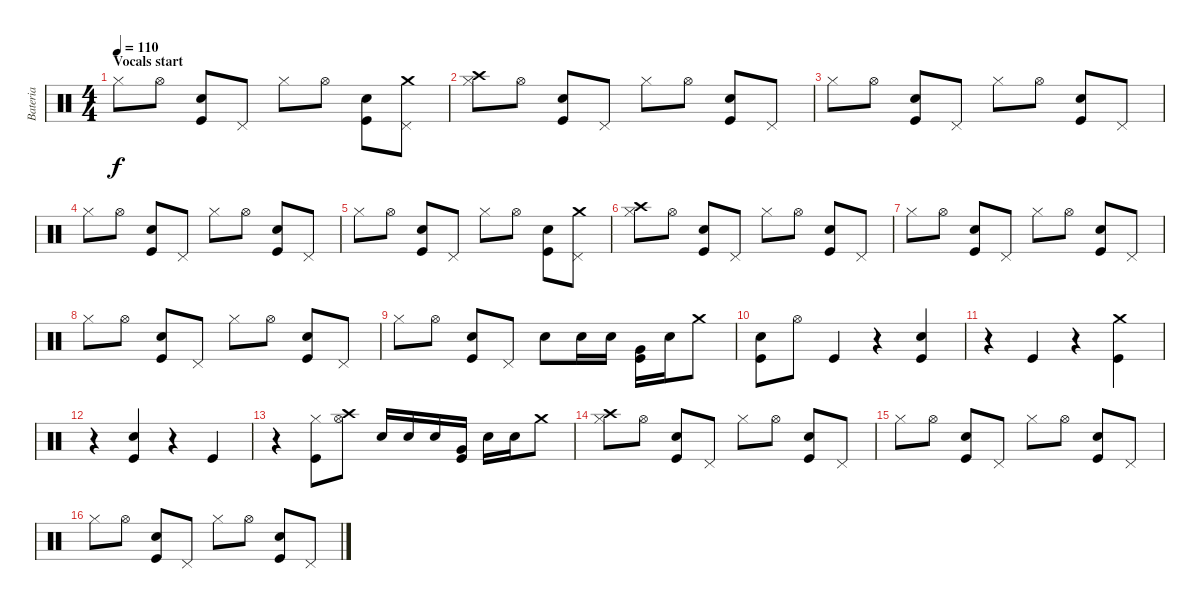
\track ("Bateria" "Bateria") {instrument percussion}
\staff {score}
\articulation defaults
\ts (4 4)
\section ("" "Vocals start")
\tempo 110
\clef neutral
\ks c "Hi-Hat (closed)".8{dy f} "Hi-Hat (open)".8
("Electric Snare (hit)" "Kick (hit)").8 "Pedal Hi-Hat (hit)".8 "Hi-Hat (closed)".8 "Hi-Hat (open)".8 ("Electric Snare (hit)" "Kick (hit)").8 ("Crash medium (hit)" "Pedal Hi-Hat (hit)").8 |
("Crash high (hit)" "Hi-Hat (closed)").8 "Hi-Hat (open)".8 ("Electric Snare (hit)" "Kick (hit)").8 "Pedal Hi-Hat (hit)".8 "Hi-Hat (closed)".8 "Hi-Hat (open)".8 ("Electric Snare (hit)" "Kick (hit)").8 "Pedal Hi-Hat (hit)".8 |
"Hi-Hat (closed)".8 "Hi-Hat (open)".8 ("Electric Snare (hit)" "Kick (hit)").8 "Pedal Hi-Hat (hit)".8 "Hi-Hat (closed)".8 "Hi-Hat (open)".8 ("Electric Snare (hit)" "Kick (hit)").8 "Pedal Hi-Hat (hit)".8 |
"Hi-Hat (closed)".8 "Hi-Hat (open)".8 ("Electric Snare (hit)" "Kick (hit)").8 "Pedal Hi-Hat (hit)".8 "Hi-Hat (closed)".8 "Hi-Hat (open)".8 ("Electric Snare (hit)" "Kick (hit)").8 "Pedal Hi-Hat (hit)".8 |
"Hi-Hat (closed)".8 "Hi-Hat (open)".8 ("Electric Snare (hit)" "Kick (hit)").8 "Pedal Hi-Hat (hit)".8 "Hi-Hat (closed)".8 "Hi-Hat (open)".8 ("Electric Snare (hit)" "Kick (hit)").8 ("Crash medium (hit)" "Pedal Hi-Hat (hit)").8 |
("Crash high (hit)" "Hi-Hat (closed)").8 "Hi-Hat (open)".8 ("Electric Snare (hit)" "Kick (hit)").8 "Pedal Hi-Hat (hit)".8 "Hi-Hat (closed)".8 "Hi-Hat (open)".8 ("Electric Snare (hit)" "Kick (hit)").8 "Pedal Hi-Hat (hit)".8 |
"Hi-Hat (closed)".8 "Hi-Hat (open)".8 ("Electric Snare (hit)" "Kick (hit)").8 "Pedal Hi-Hat (hit)".8 "Hi-Hat (closed)".8 "Hi-Hat (open)".8 ("Electric Snare (hit)" "Kick (hit)").8 "Pedal Hi-Hat (hit)".8 |
"Hi-Hat (closed)".8 "Hi-Hat (open)".8 ("Electric Snare (hit)" "Kick (hit)").8 "Pedal Hi-Hat (hit)".8 "Hi-Hat (closed)".8 "Hi-Hat (open)".8 ("Electric Snare (hit)" "Kick (hit)").8 "Pedal Hi-Hat (hit)".8 |
"Hi-Hat (closed)".8 "Hi-Hat (open)".8 ("Electric Snare (hit)" "Kick (hit)").8 "Pedal Hi-Hat (hit)".8 "Snare (hit) 2".8 "Electric Snare (hit)".16 "Electric Snare (hit)".16 ("Very Low Tom (hit)" "Kick (hit)").16 "Electric Snare (hit)".16 "Crash medium (hit)".8 |
("Electric Snare (hit)" "Kick (hit)").8 "Hi-Hat (open)".8 "Kick (hit)".4 r.4 ("Electric Snare (hit)" "Kick (hit)").4 |
r.4 "Kick (hit)".4 r.4 ("Crash medium (hit)" "Kick (hit)").4 |
r.4 ("Electric Snare (hit)" "Kick (hit)").4 r.4 "Kick (hit)".4 |
r.4 ("Hi-Hat (closed)" "Kick (hit)").8 ("Crash high (hit)" "Hi-Hat (open)").8 "Snare (hit) 2".16 "Electric Snare (hit)".16 "Electric Snare (hit)".16 ("Very Low Tom (hit)" "Kick (hit)").16 "Electric Snare (hit)".16 "Electric Snare (hit)".16 "Crash medium (hit)".8 |
("Crash high (hit)" "Hi-Hat (closed)").8 "Hi-Hat (open)".8 ("Electric Snare (hit)" "Kick (hit)").8 "Pedal Hi-Hat (hit)".8 "Hi-Hat (closed)".8 "Hi-Hat (open)".8 ("Electric Snare (hit)" "Kick (hit)").8 "Pedal Hi-Hat (hit)".8 |
"Hi-Hat (closed)".8 "Hi-Hat (open)".8 ("Electric Snare (hit)" "Kick (hit)").8 "Pedal Hi-Hat (hit)".8 "Hi-Hat (closed)".8 "Hi-Hat (open)".8 ("Electric Snare (hit)" "Kick (hit)").8 "Pedal Hi-Hat (hit)".8 |
"Hi-Hat (closed)".8 "Hi-Hat (open)".8 ("Electric Snare (hit)" "Kick (hit)").8 "Pedal Hi-Hat (hit)".8 "Hi-Hat (closed)".8 "Hi-Hat (open)".8 ("Electric Snare (hit)" "Kick (hit)").8 "Pedal Hi-Hat (hit)".8
